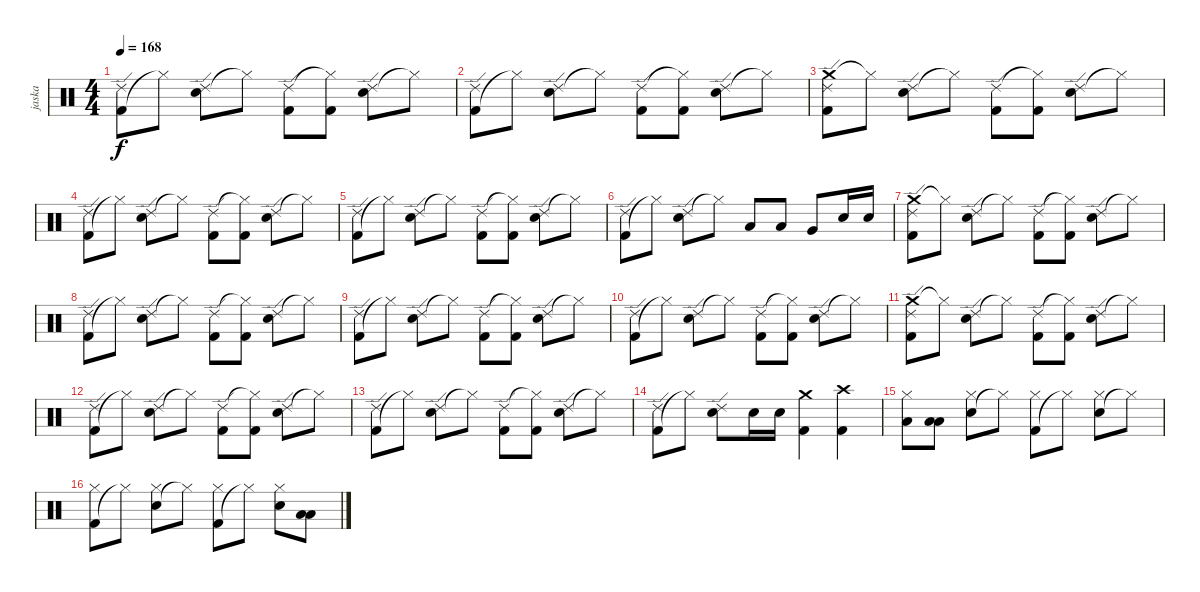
\track ("jaska" "jaska") {instrument percussion}
\staff
\articulation defaults
\ts (4 4)
\tempo 168
\clef neutral
\ks c
("Kick (hit) 2" "Ride (edge) 2").8{dy f} "Hi-Hat (closed)"{t}.8 ("Electric Snare (hit)" "Ride (edge) 2").8 "Hi-Hat (closed)"{t}.8 ("Kick (hit) 2" "Ride (edge) 2").8 ("Kick (hit) 2" "Hi-Hat (closed)"{t}).8 ("Electric Snare (hit)" "Ride (edge) 2").8 "Hi-Hat (closed)"{t}.8 |
("Kick (hit) 2" "Ride (edge) 2").8 "Hi-Hat (closed)"{t}.8 ("Electric Snare (hit)" "Ride (edge) 2").8 "Hi-Hat (closed)"{t}.8 ("Kick (hit) 2" "Ride (edge) 2").8 ("Kick (hit) 2" "Hi-Hat (closed)"{t}).8 ("Electric Snare (hit)" "Ride (edge) 2").8 "Hi-Hat (closed)"{t}.8 |
("Crash medium (hit)" "Kick (hit) 2" "Ride (edge) 2").8 "Hi-Hat (closed)"{t}.8 ("Electric Snare (hit)" "Ride (edge) 2").8 "Hi-Hat (closed)"{t}.8 ("Kick (hit) 2" "Ride (edge) 2").8 ("Kick (hit) 2" "Hi-Hat (closed)"{t}).8 ("Electric Snare (hit)" "Ride (edge) 2").8 "Hi-Hat (closed)"{t}.8 |
("Kick (hit) 2" "Ride (edge) 2").8 "Hi-Hat (closed)"{t}.8 ("Electric Snare (hit)" "Ride (edge) 2").8 "Hi-Hat (closed)"{t}.8 ("Kick (hit) 2" "Ride (edge) 2").8 ("Kick (hit) 2" "Hi-Hat (closed)"{t}).8 ("Electric Snare (hit)" "Ride (edge) 2").8 "Hi-Hat (closed)"{t}.8 |
("Kick (hit) 2" "Ride (edge) 2").8 "Hi-Hat (closed)"{t}.8 ("Electric Snare (hit)" "Ride (edge) 2").8 "Hi-Hat (closed)"{t}.8 ("Kick (hit) 2" "Ride (edge) 2").8 ("Kick (hit) 2" "Hi-Hat (closed)"{t}).8 ("Electric Snare (hit)" "Ride (edge) 2").8 "Hi-Hat (closed)"{t}.8 |
("Kick (hit) 2" "Ride (edge) 2").8 "Hi-Hat (closed)"{t}.8 ("Electric Snare (hit)" "Ride (edge) 2").8 "Hi-Hat (closed)"{t}.8 "Low Tom (hit)".8 "Low Tom (hit)".8 "Very Low Tom (hit)".8 "Electric Snare (hit)".16 "Electric Snare (hit)".16 |
("Crash medium (hit)" "Kick (hit) 2" "Ride (edge) 2").8 "Hi-Hat (closed)"{t}.8 ("Electric Snare (hit)" "Ride (edge) 2").8 "Hi-Hat (closed)"{t}.8 ("Kick (hit) 2" "Ride (edge) 2").8 ("Kick (hit) 2" "Hi-Hat (closed)"{t}).8 ("Electric Snare (hit)" "Ride (edge) 2").8 "Hi-Hat (closed)"{t}.8 |
("Kick (hit) 2" "Ride (edge) 2").8 "Hi-Hat (closed)"{t}.8 ("Electric Snare (hit)" "Ride (edge) 2").8 "Hi-Hat (closed)"{t}.8 ("Kick (hit) 2" "Ride (edge) 2").8 ("Kick (hit) 2" "Hi-Hat (closed)"{t}).8 ("Electric Snare (hit)" "Ride (edge) 2").8 "Hi-Hat (closed)"{t}.8 |
("Kick (hit) 2" "Ride (edge) 2").8 "Hi-Hat (closed)"{t}.8 ("Electric Snare (hit)" "Ride (edge) 2").8 "Hi-Hat (closed)"{t}.8 ("Kick (hit) 2" "Ride (edge) 2").8 ("Kick (hit) 2" "Hi-Hat (closed)"{t}).8 ("Electric Snare (hit)" "Ride (edge) 2").8 "Hi-Hat (closed)"{t}.8 |
("Kick (hit) 2" "Ride (edge) 2").8 "Hi-Hat (closed)"{t}.8 ("Electric Snare (hit)" "Ride (edge) 2").8 "Hi-Hat (closed)"{t}.8 ("Kick (hit) 2" "Ride (edge) 2").8 ("Kick (hit) 2" "Hi-Hat (closed)"{t}).8 ("Electric Snare (hit)" "Ride (edge) 2").8 "Hi-Hat (closed)"{t}.8 |
("Crash medium (hit)" "Kick (hit) 2" "Ride (edge) 2").8 "Hi-Hat (closed)"{t}.8 ("Electric Snare (hit)" "Ride (edge) 2").8 "Hi-Hat (closed)"{t}.8 ("Kick (hit) 2" "Ride (edge) 2").8 ("Kick (hit) 2" "Hi-Hat (closed)"{t}).8 ("Electric Snare (hit)" "Ride (edge) 2").8 "Hi-Hat (closed)"{t}.8 |
("Kick (hit) 2" "Ride (edge) 2").8 "Hi-Hat (closed)"{t}.8 ("Electric Snare (hit)" "Ride (edge) 2").8 "Hi-Hat (closed)"{t}.8 ("Kick (hit) 2" "Ride (edge) 2").8 ("Kick (hit) 2" "Hi-Hat (closed)"{t}).8 ("Electric Snare (hit)" "Ride (edge) 2").8 "Hi-Hat (closed)"{t}.8 |
("Kick (hit) 2" "Ride (edge) 2").8 "Hi-Hat (closed)"{t}.8 ("Electric Snare (hit)" "Ride (edge) 2").8 "Hi-Hat (closed)"{t}.8 ("Kick (hit) 2" "Ride (edge) 2").8 ("Kick (hit) 2" "Hi-Hat (closed)"{t}).8 ("Electric Snare (hit)" "Ride (edge) 2").8 "Hi-Hat (closed)"{t}.8 |
("Kick (hit) 2" "Ride (edge) 2").8 "Hi-Hat (closed)"{t}.8 ("Electric Snare (hit)" "Ride (edge) 2").8 "Electric Snare (hit)".16 "Electric Snare (hit)".16 ("Crash medium (hit)" "Kick (hit) 2").4 ("Crash high (hit)" "Kick (hit) 2").4 |
("Low Tom (hit)" "Hi-Hat (closed)").8 ("Low Tom (hit)" "Low Tom (hit)").8 ("Electric Snare (hit)" "Hi-Hat (closed)").8 "Hi-Hat (closed)"{t}.8 ("Kick (hit) 2" "Hi-Hat (closed)").8 "Hi-Hat (closed)"{t}.8 ("Electric Snare (hit)" "Hi-Hat (closed)").8 "Hi-Hat (closed)"{t}.8 |
("Kick (hit) 2" "Hi-Hat (closed)").8 "Hi-Hat (closed)"{t}.8 ("Electric Snare (hit)" "Hi-Hat (closed)").8 "Hi-Hat (closed)"{t}.8 ("Kick (hit) 2" "Hi-Hat (closed)").8 "Hi-Hat (closed)"{t}.8 ("Electric Snare (hit)" "Hi-Hat (closed)").8 ("Low Tom (hit)" "Low Tom (hit)").8
